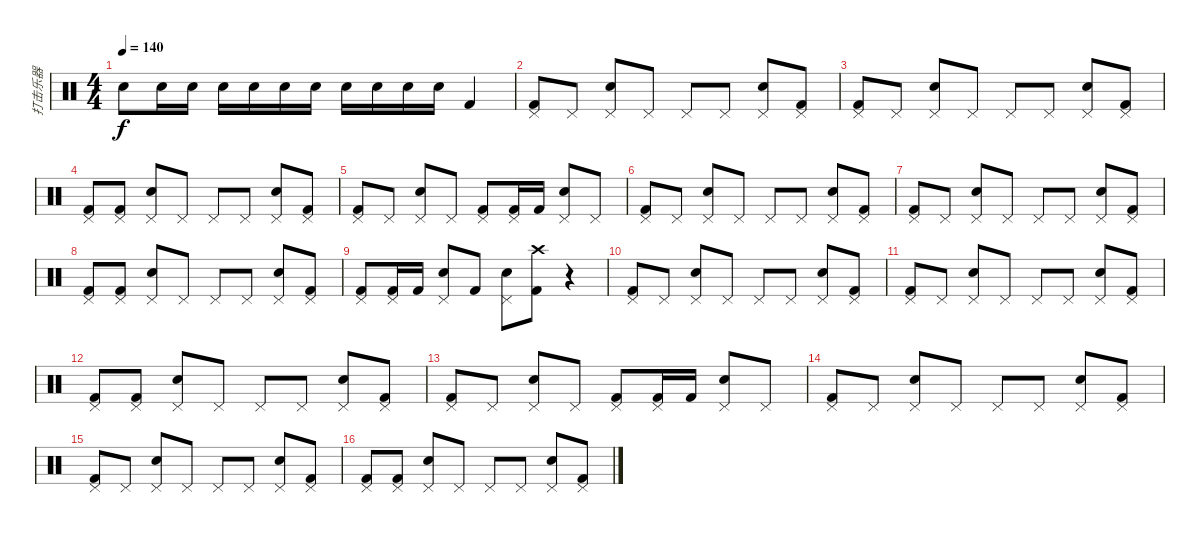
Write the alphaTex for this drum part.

\track ("打击乐器" "打击乐器") {instrument percussion}
\staff {score}
\articulation defaults
\ts (4 4)
\tempo 140
\clef neutral
\ks c "Electric Snare (hit)".8{dy f} "Hand Clap (hit)".16 "Hand Clap (hit)".16 "Hand Clap (hit)".16 "Hand Clap (hit)".16 "Hand Clap (hit)".16 "Hand Clap (hit)".16 "Hand Clap (hit)".16 "Hand Clap (hit)".16 "Hand Clap (hit)".16 "Hand Clap (hit)".16 "Kick (hit) 2".4
|
("Pedal Hi-Hat (hit)" "Kick (hit) 2").8 "Pedal Hi-Hat (hit)".8 ("Pedal Hi-Hat (hit)" "Electric Snare (hit)").8 "Pedal Hi-Hat (hit)".8 "Pedal Hi-Hat (hit)".8 "Pedal Hi-Hat (hit)".8 ("Pedal Hi-Hat (hit)" "Electric Snare (hit)").8 ("Pedal Hi-Hat (hit)" "Kick (hit) 2").8 |
("Pedal Hi-Hat (hit)" "Kick (hit) 2").8 "Pedal Hi-Hat (hit)".8 ("Pedal Hi-Hat (hit)" "Electric Snare (hit)").8 "Pedal Hi-Hat (hit)".8 "Pedal Hi-Hat (hit)".8 "Pedal Hi-Hat (hit)".8 ("Pedal Hi-Hat (hit)" "Electric Snare (hit)").8 ("Pedal Hi-Hat (hit)" "Kick (hit) 2").8 |
("Pedal Hi-Hat (hit)" "Kick (hit) 2").8 ("Pedal Hi-Hat (hit)" "Kick (hit) 2").8 ("Pedal Hi-Hat (hit)" "Electric Snare (hit)").8 "Pedal Hi-Hat (hit)".8 "Pedal Hi-Hat (hit)".8 "Pedal Hi-Hat (hit)".8 ("Pedal Hi-Hat (hit)" "Electric Snare (hit)").8 ("Pedal Hi-Hat (hit)" "Kick (hit) 2").8 |
("Pedal Hi-Hat (hit)" "Kick (hit) 2").8 "Pedal Hi-Hat (hit)".8 ("Pedal Hi-Hat (hit)" "Electric Snare (hit)").8 "Pedal Hi-Hat (hit)".8 ("Pedal Hi-Hat (hit)" "Kick (hit) 2").8 ("Pedal Hi-Hat (hit)" "Kick (hit) 2").16 "Kick (hit) 2".16 ("Pedal Hi-Hat (hit)" "Electric Snare (hit)").8 "Pedal Hi-Hat (hit)".8 |
("Pedal Hi-Hat (hit)" "Kick (hit) 2").8 "Pedal Hi-Hat (hit)".8 ("Pedal Hi-Hat (hit)" "Electric Snare (hit)").8 "Pedal Hi-Hat (hit)".8 "Pedal Hi-Hat (hit)".8 "Pedal Hi-Hat (hit)".8 ("Pedal Hi-Hat (hit)" "Electric Snare (hit)").8 ("Pedal Hi-Hat (hit)" "Kick (hit) 2").8 |
("Pedal Hi-Hat (hit)" "Kick (hit) 2").8 "Pedal Hi-Hat (hit)".8 ("Pedal Hi-Hat (hit)" "Electric Snare (hit)").8 "Pedal Hi-Hat (hit)".8 "Pedal Hi-Hat (hit)".8 "Pedal Hi-Hat (hit)".8 ("Pedal Hi-Hat (hit)" "Electric Snare (hit)").8 ("Pedal Hi-Hat (hit)" "Kick (hit) 2").8 |
("Pedal Hi-Hat (hit)" "Kick (hit) 2").8 ("Pedal Hi-Hat (hit)" "Kick (hit) 2").8 ("Pedal Hi-Hat (hit)" "Electric Snare (hit)").8 "Pedal Hi-Hat (hit)".8 "Pedal Hi-Hat (hit)".8 "Pedal Hi-Hat (hit)".8 ("Pedal Hi-Hat (hit)" "Electric Snare (hit)").8 ("Pedal Hi-Hat (hit)" "Kick (hit) 2").8 |
("Pedal Hi-Hat (hit)" "Kick (hit) 2").8 ("Pedal Hi-Hat (hit)" "Kick (hit) 2").16 "Kick (hit) 2".16 ("Pedal Hi-Hat (hit)" "Electric Snare (hit)").8 "Kick (hit) 2".8 ("Pedal Hi-Hat (hit)" "Electric Snare (hit)").8 ("Crash high (hit)" "Kick (hit) 2").8 r.4 |
("Pedal Hi-Hat (hit)" "Kick (hit) 2").8 "Pedal Hi-Hat (hit)".8 ("Pedal Hi-Hat (hit)" "Electric Snare (hit)").8 "Pedal Hi-Hat (hit)".8 "Pedal Hi-Hat (hit)".8 "Pedal Hi-Hat (hit)".8 ("Pedal Hi-Hat (hit)" "Electric Snare (hit)").8 ("Pedal Hi-Hat (hit)" "Kick (hit) 2").8 |
("Pedal Hi-Hat (hit)" "Kick (hit) 2").8 "Pedal Hi-Hat (hit)".8 ("Pedal Hi-Hat (hit)" "Electric Snare (hit)").8 "Pedal Hi-Hat (hit)".8 "Pedal Hi-Hat (hit)".8 "Pedal Hi-Hat (hit)".8 ("Pedal Hi-Hat (hit)" "Electric Snare (hit)").8 ("Pedal Hi-Hat (hit)" "Kick (hit) 2").8 |
("Pedal Hi-Hat (hit)" "Kick (hit) 2").8 ("Pedal Hi-Hat (hit)" "Kick (hit) 2").8 ("Pedal Hi-Hat (hit)" "Electric Snare (hit)").8 "Pedal Hi-Hat (hit)".8 "Pedal Hi-Hat (hit)".8 "Pedal Hi-Hat (hit)".8 ("Pedal Hi-Hat (hit)" "Electric Snare (hit)").8 ("Pedal Hi-Hat (hit)" "Kick (hit) 2").8 |
("Pedal Hi-Hat (hit)" "Kick (hit) 2").8 "Pedal Hi-Hat (hit)".8 ("Pedal Hi-Hat (hit)" "Electric Snare (hit)").8 "Pedal Hi-Hat (hit)".8 ("Pedal Hi-Hat (hit)" "Kick (hit) 2").8 ("Pedal Hi-Hat (hit)" "Kick (hit) 2").16 "Kick (hit) 2".16 ("Pedal Hi-Hat (hit)" "Electric Snare (hit)").8 "Pedal Hi-Hat (hit)".8 |
("Pedal Hi-Hat (hit)" "Kick (hit) 2").8 "Pedal Hi-Hat (hit)".8 ("Pedal Hi-Hat (hit)" "Electric Snare (hit)").8 "Pedal Hi-Hat (hit)".8 "Pedal Hi-Hat (hit)".8 "Pedal Hi-Hat (hit)".8 ("Pedal Hi-Hat (hit)" "Electric Snare (hit)").8 ("Pedal Hi-Hat (hit)" "Kick (hit) 2").8 |
("Pedal Hi-Hat (hit)" "Kick (hit) 2").8 "Pedal Hi-Hat (hit)".8 ("Pedal Hi-Hat (hit)" "Electric Snare (hit)").8 "Pedal Hi-Hat (hit)".8 "Pedal Hi-Hat (hit)".8 "Pedal Hi-Hat (hit)".8 ("Pedal Hi-Hat (hit)" "Electric Snare (hit)").8 ("Pedal Hi-Hat (hit)" "Kick (hit) 2").8 |
("Pedal Hi-Hat (hit)" "Kick (hit) 2").8 ("Pedal Hi-Hat (hit)" "Kick (hit) 2").8 ("Pedal Hi-Hat (hit)" "Electric Snare (hit)").8 "Pedal Hi-Hat (hit)".8 "Pedal Hi-Hat (hit)".8 "Pedal Hi-Hat (hit)".8 ("Pedal Hi-Hat (hit)" "Electric Snare (hit)").8 ("Pedal Hi-Hat (hit)" "Kick (hit) 2").8
